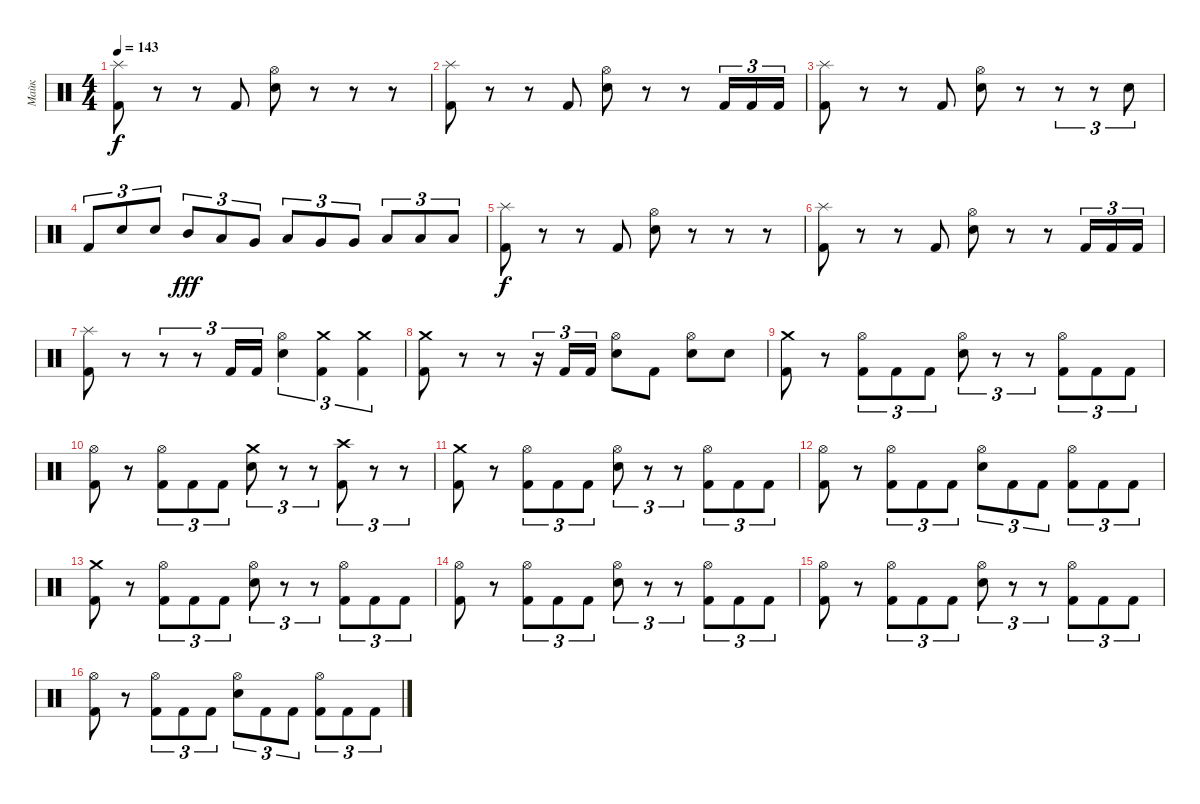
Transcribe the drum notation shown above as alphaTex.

\track ("Майк" "Майк") {instrument percussion}
\staff {score}
\articulation defaults
\ts (4 4)
\tempo 143
\clef neutral
\ks c
("Splash (hit)" "Kick (hit) 2").8{dy f} r.8 r.8 "Kick (hit) 2".8 ("Hi-Hat (open)" "Electric Snare (hit)").8 r.8 r.8 r.8 |
("Splash (hit)" "Kick (hit) 2").8 r.8 r.8 "Kick (hit) 2".8 ("Hi-Hat (open)" "Electric Snare (hit)").8 r.8 r.8 "Kick (hit) 2".16{tu (3 2)} "Kick (hit) 2".16{tu (3 2)} "Kick (hit) 2".16{tu (3 2)} |
("Splash (hit)" "Kick (hit) 2").8 r.8 r.8 "Kick (hit) 2".8 ("Hi-Hat (open)" "Electric Snare (hit)").8 r.8 r.8{tu (3 2)} r.8{tu (3 2)} "Electric Snare (hit)".8{tu (3 2)} |
"Kick (hit) 2".8{tu (3 2)} "Electric Snare (hit)".8{tu (3 2)} "Electric Snare (hit)".8{tu (3 2)} "Mid Tom (hit)".8{tu (3 2) dy fff} "Low Tom (hit)".8{tu (3 2)} "Very Low Tom (hit)".8{tu (3 2)} "Low Tom (hit)".8{tu (3 2)} "Very Low Tom (hit)".8{tu (3 2)} "Very Low Tom (hit)".8{tu (3 2)} "Low Floor Tom (hit)".8{tu (3 2)} "Low Floor Tom (hit)".8{tu (3 2)} "Low Floor Tom (hit)".8{tu (3 2)} |
("Splash (hit)" "Kick (hit) 2").8{dy f} r.8 r.8 "Kick (hit) 2".8 ("Hi-Hat (open)" "Electric Snare (hit)").8 r.8 r.8 r.8 |
("Splash (hit)" "Kick (hit) 2").8 r.8 r.8 "Kick (hit) 2".8 ("Hi-Hat (open)" "Electric Snare (hit)").8 r.8 r.8 "Kick (hit) 2".16{tu (3 2)} "Kick (hit) 2".16{tu (3 2)} "Kick (hit) 2".16{tu (3 2)} |
("Splash (hit)" "Kick (hit) 2").8 r.8 r.8{tu (3 2)} r.8{tu (3 2)} "Kick (hit) 2".16{tu (3 2)} "Kick (hit) 2".16{tu (3 2)} ("Hi-Hat (open)" "Electric Snare (hit)").4{tu (3 2)} ("Crash medium (hit)" "Kick (hit) 2").4{tu (3 2)} ("Crash medium (hit)" "Kick (hit) 2").4{tu (3 2)} |
("Crash medium (hit)" "Kick (hit) 2").8 r.8 r.8 r.16{tu (3 2)} "Kick (hit) 2".16{tu (3 2)} "Kick (hit) 2".16{tu (3 2)} ("Hi-Hat (open)" "Electric Snare (hit)").8 "Kick (hit) 2".8 ("Hi-Hat (open)" "Electric Snare (hit)").8 "Electric Snare (hit)".8 |
("Crash medium (hit)" "Kick (hit) 2").8 r.8 ("Hi-Hat (open)" "Kick (hit) 2").8{tu (3 2)} "Kick (hit) 2".8{tu (3 2)} "Kick (hit) 2".8{tu (3 2)} ("Hi-Hat (open)" "Electric Snare (hit)").8{tu (3 2)} r.8{tu (3 2)} r.8{tu (3 2)} ("Hi-Hat (open)" "Kick (hit) 2").8{tu (3 2)} "Kick (hit) 2".8{tu (3 2)} "Kick (hit) 2".8{tu (3 2)} |
("Hi-Hat (open)" "Kick (hit) 2").8 r.8 ("Hi-Hat (open)" "Kick (hit) 2").8{tu (3 2)} "Kick (hit) 2".8{tu (3 2)} "Kick (hit) 2".8{tu (3 2)} ("Crash medium (hit)" "Electric Snare (hit)").8{tu (3 2)} r.8{tu (3 2)} r.8{tu (3 2)} ("Crash high (hit)" "Kick (hit) 2").8{tu (3 2)} r.8{tu (3 2)} r.8{tu (3 2)} |
("Crash medium (hit)" "Kick (hit) 2").8 r.8 ("Hi-Hat (open)" "Kick (hit) 2").8{tu (3 2)} "Kick (hit) 2".8{tu (3 2)} "Kick (hit) 2".8{tu (3 2)} ("Hi-Hat (open)" "Electric Snare (hit)").8{tu (3 2)} r.8{tu (3 2)} r.8{tu (3 2)} ("Hi-Hat (open)" "Kick (hit) 2").8{tu (3 2)} "Kick (hit) 2".8{tu (3 2)} "Kick (hit) 2".8{tu (3 2)} |
("Hi-Hat (open)" "Kick (hit) 2").8 r.8 ("Hi-Hat (open)" "Kick (hit) 2").8{tu (3 2)} "Kick (hit) 2".8{tu (3 2)} "Kick (hit) 2".8{tu (3 2)} ("Hi-Hat (open)" "Electric Snare (hit)").8{tu (3 2)} "Kick (hit) 2".8{tu (3 2)} "Kick (hit) 2".8{tu (3 2)} ("Hi-Hat (open)" "Kick (hit) 2").8{tu (3 2)} "Kick (hit) 2".8{tu (3 2)} "Kick (hit) 2".8{tu (3 2)} |
("Crash medium (hit)" "Kick (hit) 2").8 r.8 ("Hi-Hat (open)" "Kick (hit) 2").8{tu (3 2)} "Kick (hit) 2".8{tu (3 2)} "Kick (hit) 2".8{tu (3 2)} ("Hi-Hat (open)" "Electric Snare (hit)").8{tu (3 2)} r.8{tu (3 2)} r.8{tu (3 2)} ("Hi-Hat (open)" "Kick (hit) 2").8{tu (3 2)} "Kick (hit) 2".8{tu (3 2)} "Kick (hit) 2".8{tu (3 2)} |
("Hi-Hat (open)" "Kick (hit) 2").8 r.8 ("Hi-Hat (open)" "Kick (hit) 2").8{tu (3 2)} "Kick (hit) 2".8{tu (3 2)} "Kick (hit) 2".8{tu (3 2)} ("Hi-Hat (open)" "Electric Snare (hit)").8{tu (3 2)} r.8{tu (3 2)} r.8{tu (3 2)} ("Hi-Hat (open)" "Kick (hit) 2").8{tu (3 2)} "Kick (hit) 2".8{tu (3 2)} "Kick (hit) 2".8{tu (3 2)} |
("Hi-Hat (open)" "Kick (hit) 2").8 r.8 ("Hi-Hat (open)" "Kick (hit) 2").8{tu (3 2)} "Kick (hit) 2".8{tu (3 2)} "Kick (hit) 2".8{tu (3 2)} ("Hi-Hat (open)" "Electric Snare (hit)").8{tu (3 2)} r.8{tu (3 2)} r.8{tu (3 2)} ("Hi-Hat (open)" "Kick (hit) 2").8{tu (3 2)} "Kick (hit) 2".8{tu (3 2)} "Kick (hit) 2".8{tu (3 2)} |
("Hi-Hat (open)" "Kick (hit) 2").8 r.8 ("Hi-Hat (open)" "Kick (hit) 2").8{tu (3 2)} "Kick (hit) 2".8{tu (3 2)} "Kick (hit) 2".8{tu (3 2)} ("Hi-Hat (open)" "Electric Snare (hit)").8{tu (3 2)} "Kick (hit) 2".8{tu (3 2)} "Kick (hit) 2".8{tu (3 2)} ("Hi-Hat (open)" "Kick (hit) 2").8{tu (3 2)} "Kick (hit) 2".8{tu (3 2)} "Kick (hit) 2".8{tu (3 2)}
